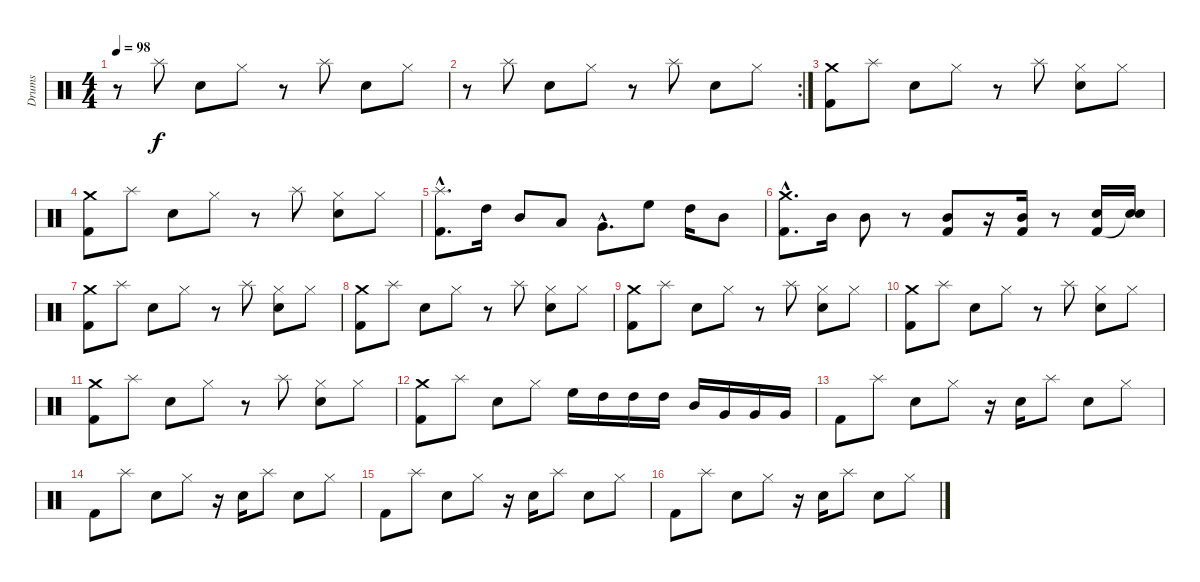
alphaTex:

\track ("Drums" "Drums") {instrument percussion}
\staff {score}
\articulation defaults
\ts (4 4)
\tempo 98
\clef neutral
\ks c
r.8{dy f} "Splash (hit)".8 "Snare (hit) 2".8 "Hi-Hat (closed)".8 r.8 "Splash (hit)".8 "Snare (hit) 2".8 "Hi-Hat (closed)".8 |
\rc 2
r.8 "Splash (hit)".8 "Snare (hit) 2".8 "Hi-Hat (closed)".8 r.8 "Splash (hit)".8 "Snare (hit) 2".8 "Hi-Hat (closed)".8 |
("Crash medium (hit)" "Kick (hit) 2").8 "Splash (hit)".8 "Snare (hit) 2".8 "Hi-Hat (closed)".8 r.8 "Splash (hit)".8 ("Hi-Hat (closed)" "Snare (hit) 2").8 "Hi-Hat (closed)".8 |
("Crash medium (hit)" "Kick (hit) 2").8 "Splash (hit)".8 "Snare (hit) 2".8 "Hi-Hat (closed)".8 r.8 "Splash (hit)".8 ("Hi-Hat (closed)" "Snare (hit) 2").8 "Hi-Hat (closed)".8 |
("Splash (hit)"{hac} "Kick (hit) 2"{hac}).8{d} "High Tom (hit)".16 "Mid Tom (hit)".8 "Low Tom (hit)".8 "Very Low Tom (hit)"{hac}.8{d} "High Floor Tom (hit)".8 "High Tom (hit)".16 "Mid Tom (hit)".8 |
("Crash medium (hit)"{hac} "Kick (hit) 2"{hac}).8{d} "Mid Tom (hit)".16 "Mid Tom (hit)".8 r.8 ("Mid Tom (hit)" "Kick (hit) 2").8 r.16 ("Mid Tom (hit)" "Kick (hit) 2").16 r.8 ("Electric Snare (hit)" "Kick (hit) 2").16 ("Electric Snare (hit)" "Snare (hit)"{t}).16 |
("Crash medium (hit)" "Kick (hit) 2").8 "Splash (hit)".8 "Snare (hit) 2".8 "Hi-Hat (closed)".8 r.8 "Splash (hit)".8 ("Hi-Hat (closed)" "Snare (hit) 2").8 "Hi-Hat (closed)".8 |
("Crash medium (hit)" "Kick (hit) 2").8 "Splash (hit)".8 "Snare (hit) 2".8 "Hi-Hat (closed)".8 r.8 "Splash (hit)".8 ("Hi-Hat (closed)" "Snare (hit) 2").8 "Hi-Hat (closed)".8 |
("Crash medium (hit)" "Kick (hit) 2").8 "Splash (hit)".8 "Snare (hit) 2".8 "Hi-Hat (closed)".8 r.8 "Splash (hit)".8 ("Hi-Hat (closed)" "Snare (hit) 2").8 "Hi-Hat (closed)".8 |
("Crash medium (hit)" "Kick (hit) 2").8 "Splash (hit)".8 "Snare (hit) 2".8 "Hi-Hat (closed)".8 r.8 "Splash (hit)".8 ("Hi-Hat (closed)" "Snare (hit) 2").8 "Hi-Hat (closed)".8 |
("Crash medium (hit)" "Kick (hit) 2").8 "Splash (hit)".8 "Snare (hit) 2".8 "Hi-Hat (closed)".8 r.8 "Splash (hit)".8 ("Hi-Hat (closed)" "Snare (hit) 2").8 "Hi-Hat (closed)".8 |
("Crash medium (hit)" "Kick (hit) 2").8 "Splash (hit)".8 "Snare (hit) 2".8 "Hi-Hat (closed)".8 "High Floor Tom (hit)".16 "High Tom (hit)".16 "High Tom (hit)".16 "High Tom (hit)".16 "Mid Tom (hit)".16 "Very Low Tom (hit)".16 "Very Low Tom (hit)".16 "Very Low Tom (hit)".16 |
"Kick (hit) 2".8 "Splash (hit)".8 "Snare (hit) 2".8 "Hi-Hat (closed)".8 r.16 "Snare (hit) 2".16 "Splash (hit)".8 "Snare (hit) 2".8 "Hi-Hat (closed)".8 |
"Kick (hit) 2".8 "Splash (hit)".8 "Snare (hit) 2".8 "Hi-Hat (closed)".8 r.16 "Snare (hit) 2".16 "Splash (hit)".8 "Snare (hit) 2".8 "Hi-Hat (closed)".8 |
"Kick (hit) 2".8 "Splash (hit)".8 "Snare (hit) 2".8 "Hi-Hat (closed)".8 r.16 "Snare (hit) 2".16 "Splash (hit)".8 "Snare (hit) 2".8 "Hi-Hat (closed)".8 |
"Kick (hit) 2".8 "Splash (hit)".8 "Snare (hit) 2".8 "Hi-Hat (closed)".8 r.16 "Snare (hit) 2".16 "Splash (hit)".8 "Snare (hit) 2".8 "Hi-Hat (closed)".8
